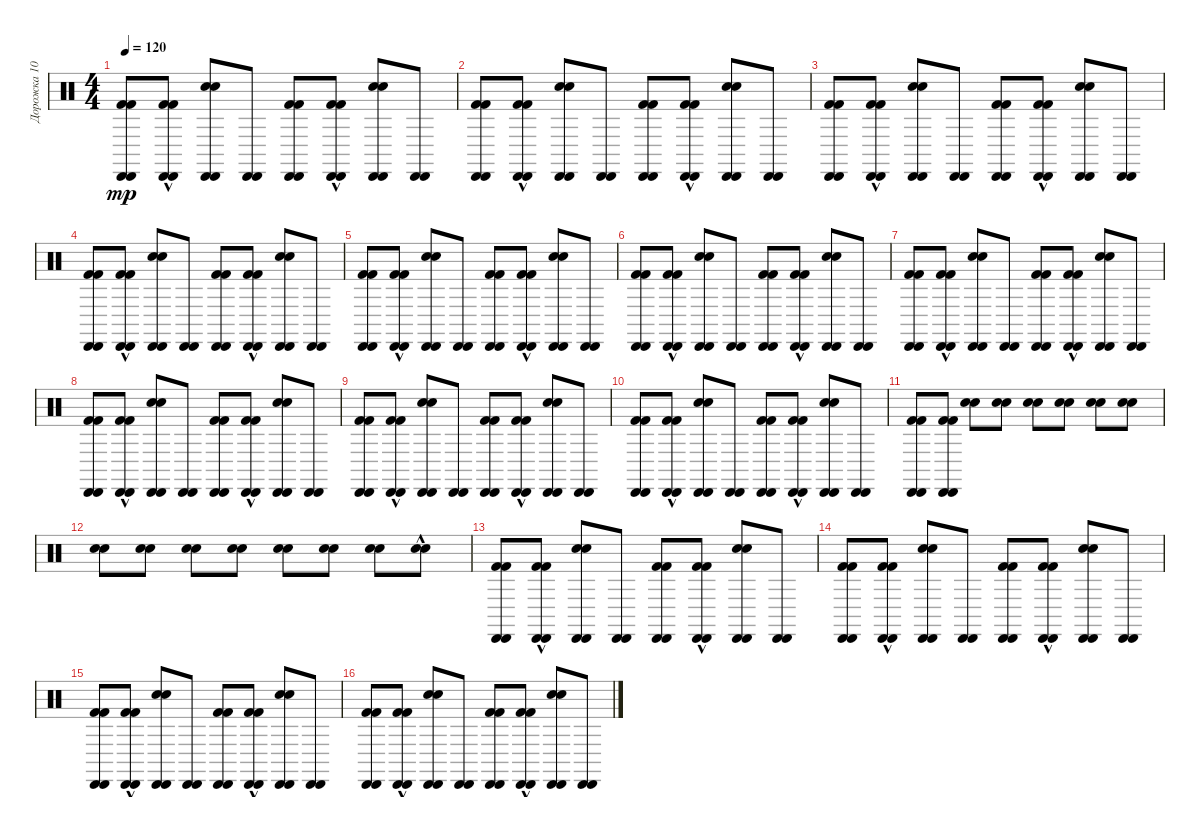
\track ("Дорожка 10" "Дорожка 10") {instrument percussion}
\staff {score}
\articulation defaults
\ts (4 4)
\tempo 120
\clef neutral
\ks c
("Kick (hit) 2" "Cabasa (hit)" "Kick (hit) 2" "Cabasa (hit)").8{dy mp} ("Kick (hit) 2"{hac} "Cabasa (hit)" "Kick (hit) 2"{hac} "Cabasa (hit)").8 ("Snare (hit) 2" "Cabasa (hit)" "Snare (hit) 2" "Cabasa (hit)").8 ("Cabasa (hit)" "Cabasa (hit)").8 ("Kick (hit) 2" "Cabasa (hit)" "Kick (hit) 2" "Cabasa (hit)").8 ("Kick (hit) 2"{hac} "Cabasa (hit)" "Kick (hit) 2"{hac} "Cabasa (hit)").8 ("Snare (hit) 2" "Cabasa (hit)" "Snare (hit) 2" "Cabasa (hit)").8 ("Cabasa (hit)" "Cabasa (hit)").8 |
("Kick (hit) 2" "Cabasa (hit)" "Kick (hit) 2" "Cabasa (hit)").8 ("Kick (hit) 2"{hac} "Cabasa (hit)" "Kick (hit) 2"{hac} "Cabasa (hit)").8 ("Snare (hit) 2" "Cabasa (hit)" "Snare (hit) 2" "Cabasa (hit)").8 ("Cabasa (hit)" "Cabasa (hit)").8 ("Kick (hit) 2" "Cabasa (hit)" "Kick (hit) 2" "Cabasa (hit)").8 ("Kick (hit) 2"{hac} "Cabasa (hit)" "Kick (hit) 2"{hac} "Cabasa (hit)").8 ("Snare (hit) 2" "Cabasa (hit)" "Snare (hit) 2" "Cabasa (hit)").8 ("Cabasa (hit)" "Cabasa (hit)").8 |
("Kick (hit) 2" "Cabasa (hit)" "Kick (hit) 2" "Cabasa (hit)").8 ("Kick (hit) 2"{hac} "Cabasa (hit)" "Kick (hit) 2"{hac} "Cabasa (hit)").8 ("Snare (hit) 2" "Cabasa (hit)" "Snare (hit) 2" "Cabasa (hit)").8 ("Cabasa (hit)" "Cabasa (hit)").8 ("Kick (hit) 2" "Cabasa (hit)" "Kick (hit) 2" "Cabasa (hit)").8 ("Kick (hit) 2"{hac} "Cabasa (hit)" "Kick (hit) 2"{hac} "Cabasa (hit)").8 ("Snare (hit) 2" "Cabasa (hit)" "Snare (hit) 2" "Cabasa (hit)").8 ("Cabasa (hit)" "Cabasa (hit)").8 |
("Kick (hit) 2" "Cabasa (hit)" "Kick (hit) 2" "Cabasa (hit)").8 ("Kick (hit) 2"{hac} "Cabasa (hit)" "Kick (hit) 2"{hac} "Cabasa (hit)").8 ("Snare (hit) 2" "Cabasa (hit)" "Snare (hit) 2" "Cabasa (hit)").8 ("Cabasa (hit)" "Cabasa (hit)").8 ("Kick (hit) 2" "Cabasa (hit)" "Kick (hit) 2" "Cabasa (hit)").8 ("Kick (hit) 2"{hac} "Cabasa (hit)" "Kick (hit) 2"{hac} "Cabasa (hit)").8 ("Snare (hit) 2" "Cabasa (hit)" "Snare (hit) 2" "Cabasa (hit)").8 ("Cabasa (hit)" "Cabasa (hit)").8 |
("Kick (hit) 2" "Cabasa (hit)" "Kick (hit) 2" "Cabasa (hit)").8 ("Kick (hit) 2"{hac} "Cabasa (hit)" "Kick (hit) 2"{hac} "Cabasa (hit)").8 ("Snare (hit) 2" "Cabasa (hit)" "Snare (hit) 2" "Cabasa (hit)").8 ("Cabasa (hit)" "Cabasa (hit)").8 ("Kick (hit) 2" "Cabasa (hit)" "Kick (hit) 2" "Cabasa (hit)").8 ("Kick (hit) 2"{hac} "Cabasa (hit)" "Kick (hit) 2"{hac} "Cabasa (hit)").8 ("Snare (hit) 2" "Cabasa (hit)" "Snare (hit) 2" "Cabasa (hit)").8 ("Cabasa (hit)" "Cabasa (hit)").8 |
("Kick (hit) 2" "Cabasa (hit)" "Kick (hit) 2" "Cabasa (hit)").8 ("Kick (hit) 2"{hac} "Cabasa (hit)" "Kick (hit) 2"{hac} "Cabasa (hit)").8 ("Snare (hit) 2" "Cabasa (hit)" "Snare (hit) 2" "Cabasa (hit)").8 ("Cabasa (hit)" "Cabasa (hit)").8 ("Kick (hit) 2" "Cabasa (hit)" "Kick (hit) 2" "Cabasa (hit)").8 ("Kick (hit) 2"{hac} "Cabasa (hit)" "Kick (hit) 2"{hac} "Cabasa (hit)").8 ("Snare (hit) 2" "Cabasa (hit)" "Snare (hit) 2" "Cabasa (hit)").8 ("Cabasa (hit)" "Cabasa (hit)").8 |
("Kick (hit) 2" "Cabasa (hit)" "Kick (hit) 2" "Cabasa (hit)").8 ("Kick (hit) 2"{hac} "Cabasa (hit)" "Kick (hit) 2"{hac} "Cabasa (hit)").8 ("Snare (hit) 2" "Cabasa (hit)" "Snare (hit) 2" "Cabasa (hit)").8 ("Cabasa (hit)" "Cabasa (hit)").8 ("Kick (hit) 2" "Cabasa (hit)" "Kick (hit) 2" "Cabasa (hit)").8 ("Kick (hit) 2"{hac} "Cabasa (hit)" "Kick (hit) 2"{hac} "Cabasa (hit)").8 ("Snare (hit) 2" "Cabasa (hit)" "Snare (hit) 2" "Cabasa (hit)").8 ("Cabasa (hit)" "Cabasa (hit)").8 |
("Kick (hit) 2" "Cabasa (hit)" "Kick (hit) 2" "Cabasa (hit)").8 ("Kick (hit) 2"{hac} "Cabasa (hit)" "Kick (hit) 2"{hac} "Cabasa (hit)").8 ("Snare (hit) 2" "Cabasa (hit)" "Snare (hit) 2" "Cabasa (hit)").8 ("Cabasa (hit)" "Cabasa (hit)").8 ("Kick (hit) 2" "Cabasa (hit)" "Kick (hit) 2" "Cabasa (hit)").8 ("Kick (hit) 2"{hac} "Cabasa (hit)" "Kick (hit) 2"{hac} "Cabasa (hit)").8 ("Snare (hit) 2" "Cabasa (hit)" "Snare (hit) 2" "Cabasa (hit)").8 ("Cabasa (hit)" "Cabasa (hit)").8 |
("Kick (hit) 2" "Cabasa (hit)" "Kick (hit) 2" "Cabasa (hit)").8 ("Kick (hit) 2"{hac} "Cabasa (hit)" "Kick (hit) 2"{hac} "Cabasa (hit)").8 ("Snare (hit) 2" "Cabasa (hit)" "Snare (hit) 2" "Cabasa (hit)").8 ("Cabasa (hit)" "Cabasa (hit)").8 ("Kick (hit) 2" "Cabasa (hit)" "Kick (hit) 2" "Cabasa (hit)").8 ("Kick (hit) 2"{hac} "Cabasa (hit)" "Kick (hit) 2"{hac} "Cabasa (hit)").8 ("Snare (hit) 2" "Cabasa (hit)" "Snare (hit) 2" "Cabasa (hit)").8 ("Cabasa (hit)" "Cabasa (hit)").8 |
("Kick (hit) 2" "Cabasa (hit)" "Kick (hit) 2" "Cabasa (hit)").8 ("Kick (hit) 2"{hac} "Cabasa (hit)" "Kick (hit) 2"{hac} "Cabasa (hit)").8 ("Snare (hit) 2" "Cabasa (hit)" "Snare (hit) 2" "Cabasa (hit)").8 ("Cabasa (hit)" "Cabasa (hit)").8 ("Kick (hit) 2" "Cabasa (hit)" "Kick (hit) 2" "Cabasa (hit)").8 ("Kick (hit) 2"{hac} "Cabasa (hit)" "Kick (hit) 2"{hac} "Cabasa (hit)").8 ("Snare (hit) 2" "Cabasa (hit)" "Snare (hit) 2" "Cabasa (hit)").8 ("Cabasa (hit)" "Cabasa (hit)").8 |
("Kick (hit) 2" "Cabasa (hit)" "Kick (hit) 2" "Cabasa (hit)").8 ("Kick (hit) 2" "Cabasa (hit)" "Kick (hit) 2" "Cabasa (hit)").8 ("Snare (hit) 2" "Snare (hit) 2").8 ("Snare (hit) 2" "Snare (hit) 2").8 ("Snare (hit) 2" "Snare (hit) 2").8 ("Snare (hit) 2" "Snare (hit) 2").8 ("Snare (hit) 2" "Snare (hit) 2").8 ("Snare (hit) 2" "Snare (hit) 2").8 |
("Snare (hit) 2" "Snare (hit) 2").8 ("Snare (hit) 2" "Snare (hit) 2").8 ("Snare (hit) 2" "Snare (hit) 2").8 ("Snare (hit) 2" "Snare (hit) 2").8 ("Snare (hit) 2" "Snare (hit) 2").8 ("Snare (hit) 2" "Snare (hit) 2").8 ("Snare (hit) 2" "Snare (hit) 2").8 ("Snare (hit) 2"{hac} "Snare (hit) 2"{hac}).8 |
("Kick (hit) 2" "Cabasa (hit)" "Kick (hit) 2" "Cabasa (hit)").8 ("Kick (hit) 2"{hac} "Cabasa (hit)" "Kick (hit) 2"{hac} "Cabasa (hit)").8 ("Snare (hit) 2" "Cabasa (hit)" "Snare (hit) 2" "Cabasa (hit)").8 ("Cabasa (hit)" "Cabasa (hit)").8 ("Kick (hit) 2" "Cabasa (hit)" "Kick (hit) 2" "Cabasa (hit)").8 ("Kick (hit) 2"{hac} "Cabasa (hit)" "Kick (hit) 2"{hac} "Cabasa (hit)").8 ("Snare (hit) 2" "Cabasa (hit)" "Snare (hit) 2" "Cabasa (hit)").8 ("Cabasa (hit)" "Cabasa (hit)").8 |
("Kick (hit) 2" "Cabasa (hit)" "Kick (hit) 2" "Cabasa (hit)").8 ("Kick (hit) 2"{hac} "Cabasa (hit)" "Kick (hit) 2"{hac} "Cabasa (hit)").8 ("Snare (hit) 2" "Cabasa (hit)" "Snare (hit) 2" "Cabasa (hit)").8 ("Cabasa (hit)" "Cabasa (hit)").8 ("Kick (hit) 2" "Cabasa (hit)" "Kick (hit) 2" "Cabasa (hit)").8 ("Kick (hit) 2"{hac} "Cabasa (hit)" "Kick (hit) 2"{hac} "Cabasa (hit)").8 ("Snare (hit) 2" "Cabasa (hit)" "Snare (hit) 2" "Cabasa (hit)").8 ("Cabasa (hit)" "Cabasa (hit)").8 |
("Kick (hit) 2" "Cabasa (hit)" "Kick (hit) 2" "Cabasa (hit)").8 ("Kick (hit) 2"{hac} "Cabasa (hit)" "Kick (hit) 2"{hac} "Cabasa (hit)").8 ("Snare (hit) 2" "Cabasa (hit)" "Snare (hit) 2" "Cabasa (hit)").8 ("Cabasa (hit)" "Cabasa (hit)").8 ("Kick (hit) 2" "Cabasa (hit)" "Kick (hit) 2" "Cabasa (hit)").8 ("Kick (hit) 2"{hac} "Cabasa (hit)" "Kick (hit) 2"{hac} "Cabasa (hit)").8 ("Snare (hit) 2" "Cabasa (hit)" "Snare (hit) 2" "Cabasa (hit)").8 ("Cabasa (hit)" "Cabasa (hit)").8 |
("Kick (hit) 2" "Cabasa (hit)" "Kick (hit) 2" "Cabasa (hit)").8 ("Kick (hit) 2"{hac} "Cabasa (hit)" "Kick (hit) 2"{hac} "Cabasa (hit)").8 ("Snare (hit) 2" "Cabasa (hit)" "Snare (hit) 2" "Cabasa (hit)").8 ("Cabasa (hit)" "Cabasa (hit)").8 ("Kick (hit) 2" "Cabasa (hit)" "Kick (hit) 2" "Cabasa (hit)").8 ("Kick (hit) 2"{hac} "Cabasa (hit)" "Kick (hit) 2"{hac} "Cabasa (hit)").8 ("Snare (hit) 2" "Cabasa (hit)" "Snare (hit) 2" "Cabasa (hit)").8 ("Cabasa (hit)" "Cabasa (hit)").8
